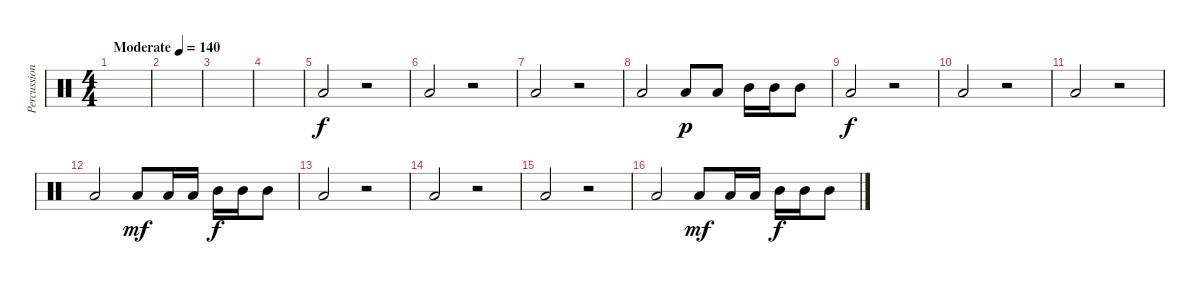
\track ("Percussion" "Percussion") {instrument percussion}
\staff {score}
\articulation defaults
\ts (4 4)
\tempo (140 "Moderate")
\clef neutral
\ks c
|
|
|
|
"Low Tom (hit)".2 r.2 |
"Low Tom (hit)".2 r.2 |
"Low Tom (hit)".2 r.2 |
"Low Tom (hit)".2 "Low Tom (hit)".8{dy p} "Low Tom (hit)".8 "Mid Tom (hit)".16 "Mid Tom (hit)".16 "Mid Tom (hit)".8 |
"Low Tom (hit)".2{dy f} r.2 |
"Low Tom (hit)".2 r.2 |
"Low Tom (hit)".2 r.2 |
"Low Tom (hit)".2 "Low Tom (hit)".8{dy mf} "Low Tom (hit)".16 "Low Tom (hit)".16 "Mid Tom (hit)".16{dy f} "Mid Tom (hit)".16 "Mid Tom (hit)".8 |
"Low Tom (hit)".2 r.2 |
"Low Tom (hit)".2 r.2 |
"Low Tom (hit)".2 r.2 |
"Low Tom (hit)".2 "Low Tom (hit)".8{dy mf} "Low Tom (hit)".16 "Low Tom (hit)".16 "Mid Tom (hit)".16{dy f} "Mid Tom (hit)".16 "Mid Tom (hit)".8
